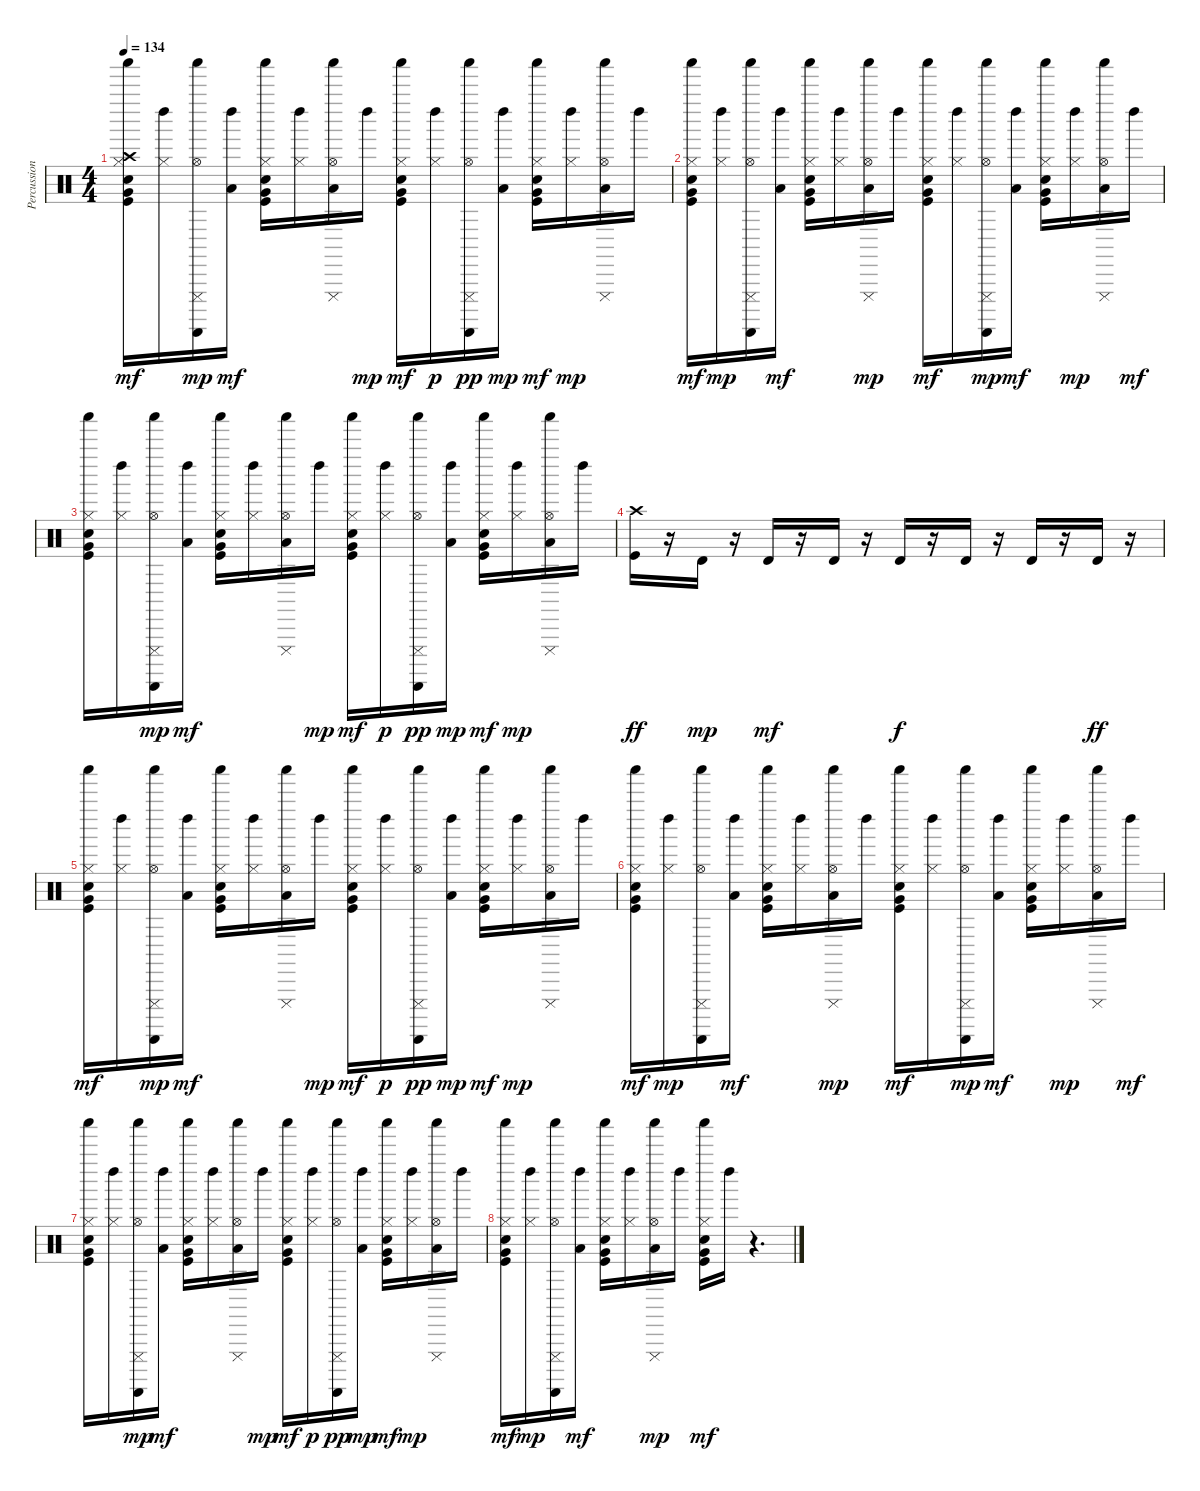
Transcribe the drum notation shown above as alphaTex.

\track ("Percussion" "Percussion") {instrument percussion}
\staff {score}
\articulation defaults
\ts (4 4)
\tempo 134
\clef neutral
\ks c
("Kick (hit)" "Hand Clap (hit)" "Hi-Hat (closed)" "Very Low Tom (hit)" "Crash high (hit)" "Shaker (hit)").16{dy mf} ("Hi-Hat (closed)" "Left Maraca (hit)").16 ("Hi-Hat (open)" "Guiro (scrap-return)" "Cuica (mute)" "Shaker (hit)").16{dy mp} ("Low Tom (hit)" "Left Maraca (hit)").16{dy mf} ("Kick (hit)" "Hand Clap (hit)" "Hi-Hat (closed)" "Very Low Tom (hit)" "Shaker (hit)").16 ("Hi-Hat (closed)" "Left Maraca (hit)").16 ("Low Tom (hit)" "Hi-Hat (open)" "Cuica (mute)" "Shaker (hit)").16 "Left Maraca (hit)".16{dy mp} ("Kick (hit)" "Hand Clap (hit)" "Hi-Hat (closed)" "Very Low Tom (hit)" "Shaker (hit)").16{dy mf} ("Hi-Hat (closed)" "Left Maraca (hit)").16{dy p} ("Hi-Hat (open)" "Guiro (scrap-return)" "Cuica (mute)" "Shaker (hit)").16{dy pp} ("Low Tom (hit)" "Left Maraca (hit)").16{dy mp} ("Kick (hit)" "Hand Clap (hit)" "Hi-Hat (closed)" "Very Low Tom (hit)" "Shaker (hit)").16{dy mf} ("Hi-Hat (closed)" "Left Maraca (hit)").16{dy mp} ("Low Tom (hit)" "Hi-Hat (open)" "Cuica (mute)" "Shaker (hit)").16 "Left Maraca (hit)".16 |
("Kick (hit)" "Hand Clap (hit)" "Hi-Hat (closed)" "Very Low Tom (hit)" "Shaker (hit)").16{dy mf} ("Hi-Hat (closed)" "Left Maraca (hit)").16{dy mp} ("Hi-Hat (open)" "Guiro (scrap-return)" "Cuica (mute)" "Shaker (hit)").16 ("Low Tom (hit)" "Left Maraca (hit)").16{dy mf} ("Kick (hit)" "Hand Clap (hit)" "Hi-Hat (closed)" "Very Low Tom (hit)" "Shaker (hit)").16 ("Hi-Hat (closed)" "Left Maraca (hit)").16 ("Low Tom (hit)" "Hi-Hat (open)" "Cuica (mute)" "Shaker (hit)").16{dy mp} "Left Maraca (hit)".16 ("Kick (hit)" "Hand Clap (hit)" "Hi-Hat (closed)" "Very Low Tom (hit)" "Shaker (hit)").16{dy mf} ("Hi-Hat (closed)" "Left Maraca (hit)").16 ("Hi-Hat (open)" "Guiro (scrap-return)" "Cuica (mute)" "Shaker (hit)").16{dy mp} ("Low Tom (hit)" "Left Maraca (hit)").16{dy mf} ("Kick (hit)" "Hand Clap (hit)" "Hi-Hat (closed)" "Very Low Tom (hit)" "Shaker (hit)").16 ("Hi-Hat (closed)" "Left Maraca (hit)").16{dy mp} ("Low Tom (hit)" "Hi-Hat (open)" "Cuica (mute)" "Shaker (hit)").16 "Left Maraca (hit)".16{dy mf} |
("Kick (hit)" "Hand Clap (hit)" "Hi-Hat (closed)" "Very Low Tom (hit)" "Shaker (hit)").16 ("Hi-Hat (closed)" "Left Maraca (hit)").16 ("Hi-Hat (open)" "Guiro (scrap-return)" "Cuica (mute)" "Shaker (hit)").16{dy mp} ("Low Tom (hit)" "Left Maraca (hit)").16{dy mf} ("Kick (hit)" "Hand Clap (hit)" "Hi-Hat (closed)" "Very Low Tom (hit)" "Shaker (hit)").16 ("Hi-Hat (closed)" "Left Maraca (hit)").16 ("Low Tom (hit)" "Hi-Hat (open)" "Cuica (mute)" "Shaker (hit)").16 "Left Maraca (hit)".16{dy mp} ("Kick (hit)" "Hand Clap (hit)" "Hi-Hat (closed)" "Very Low Tom (hit)" "Shaker (hit)").16{dy mf} ("Hi-Hat (closed)" "Left Maraca (hit)").16{dy p} ("Hi-Hat (open)" "Guiro (scrap-return)" "Cuica (mute)" "Shaker (hit)").16{dy pp} ("Low Tom (hit)" "Left Maraca (hit)").16{dy mp} ("Kick (hit)" "Hand Clap (hit)" "Hi-Hat (closed)" "Very Low Tom (hit)" "Shaker (hit)").16{dy mf} ("Hi-Hat (closed)" "Left Maraca (hit)").16{dy mp} ("Low Tom (hit)" "Hi-Hat (open)" "Cuica (mute)" "Shaker (hit)").16 "Left Maraca (hit)".16 |
("Kick (hit)" "Crash high (hit)").16{dy ff} r.16 "Timbale high (hit)".16{dy mp} r.16 "Timbale high (hit)".16{dy mf} r.16 "Timbale high (hit)".16 r.16 "Timbale high (hit)".16{dy f} r.16 "Timbale high (hit)".16 r.16 "Timbale high (hit)".16 r.16 "Timbale high (hit)".16{dy ff} r.16 |
("Kick (hit)" "Hand Clap (hit)" "Hi-Hat (closed)" "Very Low Tom (hit)" "Shaker (hit)").16{dy mf} ("Hi-Hat (closed)" "Left Maraca (hit)").16 ("Hi-Hat (open)" "Guiro (scrap-return)" "Cuica (mute)" "Shaker (hit)").16{dy mp} ("Low Tom (hit)" "Left Maraca (hit)").16{dy mf} ("Kick (hit)" "Hand Clap (hit)" "Hi-Hat (closed)" "Very Low Tom (hit)" "Shaker (hit)").16 ("Hi-Hat (closed)" "Left Maraca (hit)").16 ("Low Tom (hit)" "Hi-Hat (open)" "Cuica (mute)" "Shaker (hit)").16 "Left Maraca (hit)".16{dy mp} ("Kick (hit)" "Hand Clap (hit)" "Hi-Hat (closed)" "Very Low Tom (hit)" "Shaker (hit)").16{dy mf} ("Hi-Hat (closed)" "Left Maraca (hit)").16{dy p} ("Hi-Hat (open)" "Guiro (scrap-return)" "Cuica (mute)" "Shaker (hit)").16{dy pp} ("Low Tom (hit)" "Left Maraca (hit)").16{dy mp} ("Kick (hit)" "Hand Clap (hit)" "Hi-Hat (closed)" "Very Low Tom (hit)" "Shaker (hit)").16{dy mf} ("Hi-Hat (closed)" "Left Maraca (hit)").16{dy mp} ("Low Tom (hit)" "Hi-Hat (open)" "Cuica (mute)" "Shaker (hit)").16 "Left Maraca (hit)".16 |
("Kick (hit)" "Hand Clap (hit)" "Hi-Hat (closed)" "Very Low Tom (hit)" "Shaker (hit)").16{dy mf} ("Hi-Hat (closed)" "Left Maraca (hit)").16{dy mp} ("Hi-Hat (open)" "Guiro (scrap-return)" "Cuica (mute)" "Shaker (hit)").16 ("Low Tom (hit)" "Left Maraca (hit)").16{dy mf} ("Kick (hit)" "Hand Clap (hit)" "Hi-Hat (closed)" "Very Low Tom (hit)" "Shaker (hit)").16 ("Hi-Hat (closed)" "Left Maraca (hit)").16 ("Low Tom (hit)" "Hi-Hat (open)" "Cuica (mute)" "Shaker (hit)").16{dy mp} "Left Maraca (hit)".16 ("Kick (hit)" "Hand Clap (hit)" "Hi-Hat (closed)" "Very Low Tom (hit)" "Shaker (hit)").16{dy mf} ("Hi-Hat (closed)" "Left Maraca (hit)").16 ("Hi-Hat (open)" "Guiro (scrap-return)" "Cuica (mute)" "Shaker (hit)").16{dy mp} ("Low Tom (hit)" "Left Maraca (hit)").16{dy mf} ("Kick (hit)" "Hand Clap (hit)" "Hi-Hat (closed)" "Very Low Tom (hit)" "Shaker (hit)").16 ("Hi-Hat (closed)" "Left Maraca (hit)").16{dy mp} ("Low Tom (hit)" "Hi-Hat (open)" "Cuica (mute)" "Shaker (hit)").16 "Left Maraca (hit)".16{dy mf} |
("Kick (hit)" "Hand Clap (hit)" "Hi-Hat (closed)" "Very Low Tom (hit)" "Shaker (hit)").16 ("Hi-Hat (closed)" "Left Maraca (hit)").16 ("Hi-Hat (open)" "Guiro (scrap-return)" "Cuica (mute)" "Shaker (hit)").16{dy mp} ("Low Tom (hit)" "Left Maraca (hit)").16{dy mf} ("Kick (hit)" "Hand Clap (hit)" "Hi-Hat (closed)" "Very Low Tom (hit)" "Shaker (hit)").16 ("Hi-Hat (closed)" "Left Maraca (hit)").16 ("Low Tom (hit)" "Hi-Hat (open)" "Cuica (mute)" "Shaker (hit)").16 "Left Maraca (hit)".16{dy mp} ("Kick (hit)" "Hand Clap (hit)" "Hi-Hat (closed)" "Very Low Tom (hit)" "Shaker (hit)").16{dy mf} ("Hi-Hat (closed)" "Left Maraca (hit)").16{dy p} ("Hi-Hat (open)" "Guiro (scrap-return)" "Cuica (mute)" "Shaker (hit)").16{dy pp} ("Low Tom (hit)" "Left Maraca (hit)").16{dy mp} ("Kick (hit)" "Hand Clap (hit)" "Hi-Hat (closed)" "Very Low Tom (hit)" "Shaker (hit)").16{dy mf} ("Hi-Hat (closed)" "Left Maraca (hit)").16{dy mp} ("Low Tom (hit)" "Hi-Hat (open)" "Cuica (mute)" "Shaker (hit)").16 "Left Maraca (hit)".16 |
("Kick (hit)" "Hand Clap (hit)" "Hi-Hat (closed)" "Very Low Tom (hit)" "Shaker (hit)").16{dy mf} ("Hi-Hat (closed)" "Left Maraca (hit)").16{dy mp} ("Hi-Hat (open)" "Guiro (scrap-return)" "Cuica (mute)" "Shaker (hit)").16 ("Low Tom (hit)" "Left Maraca (hit)").16{dy mf} ("Kick (hit)" "Hand Clap (hit)" "Hi-Hat (closed)" "Very Low Tom (hit)" "Shaker (hit)").16 ("Hi-Hat (closed)" "Left Maraca (hit)").16 ("Low Tom (hit)" "Hi-Hat (open)" "Cuica (mute)" "Shaker (hit)").16{dy mp} "Left Maraca (hit)".16 ("Kick (hit)" "Hand Clap (hit)" "Hi-Hat (closed)" "Very Low Tom (hit)" "Shaker (hit)").16{dy mf} "Left Maraca (hit)".16 r.4{d}
